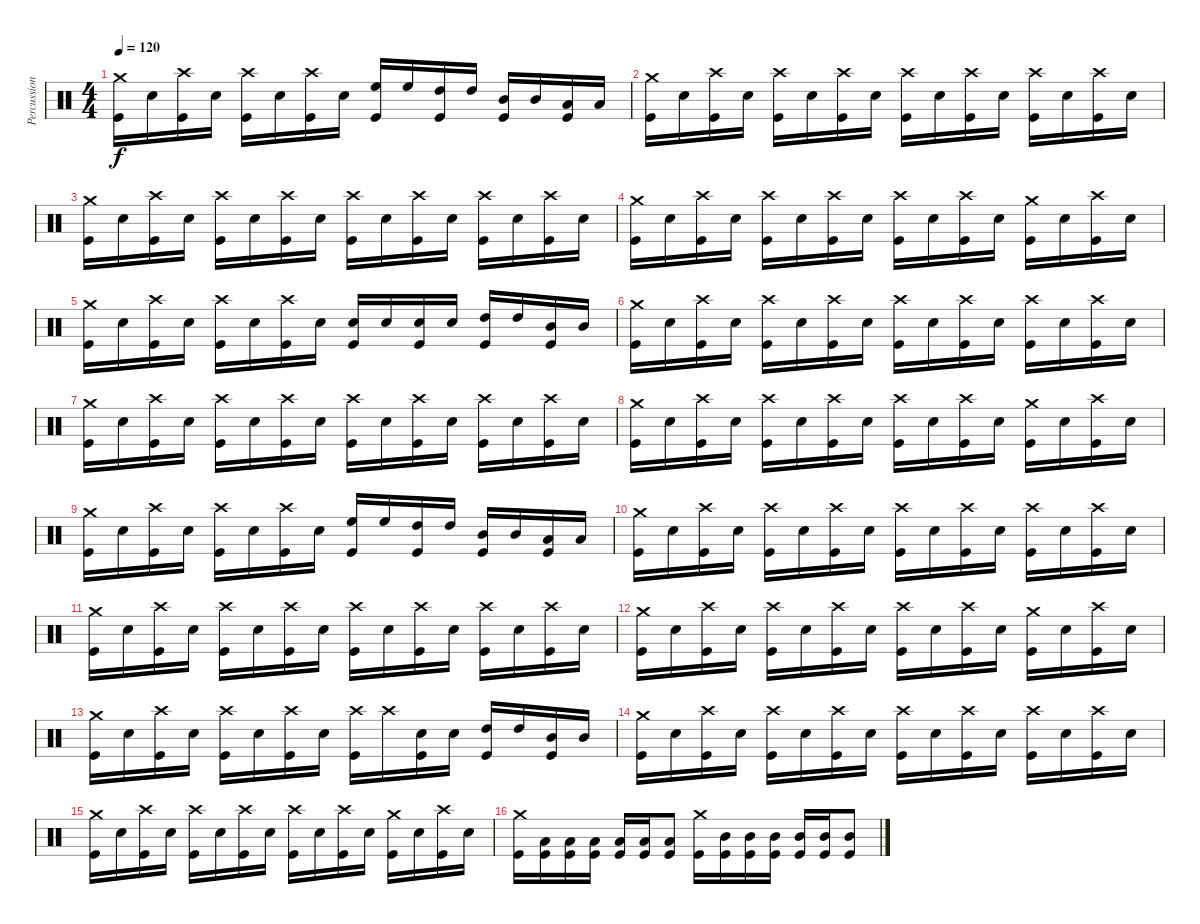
\track ("Percussioni" "Percussion") {instrument percussion}
\staff {score}
\articulation defaults
\ts (4 4)
\tempo 120
\clef neutral
\ks c
("Crash medium (hit)" "Kick (hit)").16{dy f} "Electric Snare (hit)".16 ("Crash high (hit)" "Kick (hit)").16 "Electric Snare (hit)".16 ("Crash high (hit)" "Kick (hit)").16 "Electric Snare (hit)".16 ("Crash high (hit)" "Kick (hit)").16 "Electric Snare (hit)".16 ("High Floor Tom (hit)" "Kick (hit)").16 "High Floor Tom (hit)".16 ("High Tom (hit)" "Kick (hit)").16 "High Tom (hit)".16 ("Mid Tom (hit)" "Kick (hit)").16 "Mid Tom (hit)".16 ("Low Tom (hit)" "Kick (hit)").16 "Low Tom (hit)".16 |
("Crash medium (hit)" "Kick (hit)").16 "Electric Snare (hit)".16 ("Crash high (hit)" "Kick (hit)").16 "Electric Snare (hit)".16 ("Crash high (hit)" "Kick (hit)").16 "Electric Snare (hit)".16 ("Crash high (hit)" "Kick (hit)").16 "Electric Snare (hit)".16 ("Crash high (hit)" "Kick (hit)").16 "Electric Snare (hit)".16 ("Crash high (hit)" "Kick (hit)").16 "Electric Snare (hit)".16 ("Crash high (hit)" "Kick (hit)").16 "Electric Snare (hit)".16 ("Crash high (hit)" "Kick (hit)").16 "Electric Snare (hit)".16 |
("Crash medium (hit)" "Kick (hit)").16 "Electric Snare (hit)".16 ("Crash high (hit)" "Kick (hit)").16 "Electric Snare (hit)".16 ("Crash high (hit)" "Kick (hit)").16 "Electric Snare (hit)".16 ("Crash high (hit)" "Kick (hit)").16 "Electric Snare (hit)".16 ("Crash high (hit)" "Kick (hit)").16 "Electric Snare (hit)".16 ("Crash high (hit)" "Kick (hit)").16 "Electric Snare (hit)".16 ("Crash high (hit)" "Kick (hit)").16 "Electric Snare (hit)".16 ("Crash high (hit)" "Kick (hit)").16 "Electric Snare (hit)".16 |
("Crash medium (hit)" "Kick (hit)").16 "Electric Snare (hit)".16 ("Crash high (hit)" "Kick (hit)").16 "Electric Snare (hit)".16 ("Crash high (hit)" "Kick (hit)").16 "Electric Snare (hit)".16 ("Crash high (hit)" "Kick (hit)").16 "Electric Snare (hit)".16 ("Crash high (hit)" "Kick (hit)").16 "Electric Snare (hit)".16 ("Crash high (hit)" "Kick (hit)").16 "Electric Snare (hit)".16 ("Crash medium (hit)" "Kick (hit)").16 "Electric Snare (hit)".16 ("Crash high (hit)" "Kick (hit)").16 "Electric Snare (hit)".16 |
("Crash medium (hit)" "Kick (hit)").16 "Electric Snare (hit)".16 ("Crash high (hit)" "Kick (hit)").16 "Electric Snare (hit)".16 ("Crash high (hit)" "Kick (hit)").16 "Electric Snare (hit)".16 ("Crash high (hit)" "Kick (hit)").16 "Electric Snare (hit)".16 ("Electric Snare (hit)" "Kick (hit)").16 "Electric Snare (hit)".16 ("Electric Snare (hit)" "Kick (hit)").16 "Electric Snare (hit)".16 ("High Tom (hit)" "Kick (hit)").16 "High Tom (hit)".16 ("Mid Tom (hit)" "Kick (hit)").16 "Mid Tom (hit)".16 |
("Crash medium (hit)" "Kick (hit)").16 "Electric Snare (hit)".16 ("Crash high (hit)" "Kick (hit)").16 "Electric Snare (hit)".16 ("Crash high (hit)" "Kick (hit)").16 "Electric Snare (hit)".16 ("Crash high (hit)" "Kick (hit)").16 "Electric Snare (hit)".16 ("Crash high (hit)" "Kick (hit)").16 "Electric Snare (hit)".16 ("Crash high (hit)" "Kick (hit)").16 "Electric Snare (hit)".16 ("Crash high (hit)" "Kick (hit)").16 "Electric Snare (hit)".16 ("Crash high (hit)" "Kick (hit)").16 "Electric Snare (hit)".16 |
("Crash medium (hit)" "Kick (hit)").16 "Electric Snare (hit)".16 ("Crash high (hit)" "Kick (hit)").16 "Electric Snare (hit)".16 ("Crash high (hit)" "Kick (hit)").16 "Electric Snare (hit)".16 ("Crash high (hit)" "Kick (hit)").16 "Electric Snare (hit)".16 ("Crash high (hit)" "Kick (hit)").16 "Electric Snare (hit)".16 ("Crash high (hit)" "Kick (hit)").16 "Electric Snare (hit)".16 ("Crash high (hit)" "Kick (hit)").16 "Electric Snare (hit)".16 ("Crash high (hit)" "Kick (hit)").16 "Electric Snare (hit)".16 |
("Crash medium (hit)" "Kick (hit)").16 "Electric Snare (hit)".16 ("Crash high (hit)" "Kick (hit)").16 "Electric Snare (hit)".16 ("Crash high (hit)" "Kick (hit)").16 "Electric Snare (hit)".16 ("Crash high (hit)" "Kick (hit)").16 "Electric Snare (hit)".16 ("Crash high (hit)" "Kick (hit)").16 "Electric Snare (hit)".16 ("Crash high (hit)" "Kick (hit)").16 "Electric Snare (hit)".16 ("Crash medium (hit)" "Kick (hit)").16 "Electric Snare (hit)".16 ("Crash high (hit)" "Kick (hit)").16 "Electric Snare (hit)".16 |
("Crash medium (hit)" "Kick (hit)").16 "Electric Snare (hit)".16 ("Crash high (hit)" "Kick (hit)").16 "Electric Snare (hit)".16 ("Crash high (hit)" "Kick (hit)").16 "Electric Snare (hit)".16 ("Crash high (hit)" "Kick (hit)").16 "Electric Snare (hit)".16 ("High Floor Tom (hit)" "Kick (hit)").16 "High Floor Tom (hit)".16 ("High Tom (hit)" "Kick (hit)").16 "High Tom (hit)".16 ("Mid Tom (hit)" "Kick (hit)").16 "Mid Tom (hit)".16 ("Low Tom (hit)" "Kick (hit)").16 "Low Tom (hit)".16 |
("Crash medium (hit)" "Kick (hit)").16 "Electric Snare (hit)".16 ("Crash high (hit)" "Kick (hit)").16 "Electric Snare (hit)".16 ("Crash high (hit)" "Kick (hit)").16 "Electric Snare (hit)".16 ("Crash high (hit)" "Kick (hit)").16 "Electric Snare (hit)".16 ("Crash high (hit)" "Kick (hit)").16 "Electric Snare (hit)".16 ("Crash high (hit)" "Kick (hit)").16 "Electric Snare (hit)".16 ("Crash high (hit)" "Kick (hit)").16 "Electric Snare (hit)".16 ("Crash high (hit)" "Kick (hit)").16 "Electric Snare (hit)".16 |
("Crash medium (hit)" "Kick (hit)").16 "Electric Snare (hit)".16 ("Crash high (hit)" "Kick (hit)").16 "Electric Snare (hit)".16 ("Crash high (hit)" "Kick (hit)").16 "Electric Snare (hit)".16 ("Crash high (hit)" "Kick (hit)").16 "Electric Snare (hit)".16 ("Crash high (hit)" "Kick (hit)").16 "Electric Snare (hit)".16 ("Crash high (hit)" "Kick (hit)").16 "Electric Snare (hit)".16 ("Crash high (hit)" "Kick (hit)").16 "Electric Snare (hit)".16 ("Crash high (hit)" "Kick (hit)").16 "Electric Snare (hit)".16 |
("Crash medium (hit)" "Kick (hit)").16 "Electric Snare (hit)".16 ("Crash high (hit)" "Kick (hit)").16 "Electric Snare (hit)".16 ("Crash high (hit)" "Kick (hit)").16 "Electric Snare (hit)".16 ("Crash high (hit)" "Kick (hit)").16 "Electric Snare (hit)".16 ("Crash high (hit)" "Kick (hit)").16 "Electric Snare (hit)".16 ("Crash high (hit)" "Kick (hit)").16 "Electric Snare (hit)".16 ("Crash medium (hit)" "Kick (hit)").16 "Electric Snare (hit)".16 ("Crash high (hit)" "Kick (hit)").16 "Electric Snare (hit)".16 |
("Crash medium (hit)" "Kick (hit)").16 "Electric Snare (hit)".16 ("Crash high (hit)" "Kick (hit)").16 "Electric Snare (hit)".16 ("Crash high (hit)" "Kick (hit)").16 "Electric Snare (hit)".16 ("Crash high (hit)" "Kick (hit)").16 "Electric Snare (hit)".16 ("Crash high (hit)" "Kick (hit)").16 "Crash high (hit)".16 ("Electric Snare (hit)" "Kick (hit)").16 "Electric Snare (hit)".16 ("High Tom (hit)" "Kick (hit)").16 "High Tom (hit)".16 ("Mid Tom (hit)" "Kick (hit)").16 "Mid Tom (hit)".16 |
("Crash medium (hit)" "Kick (hit)").16 "Electric Snare (hit)".16 ("Crash high (hit)" "Kick (hit)").16 "Electric Snare (hit)".16 ("Crash high (hit)" "Kick (hit)").16 "Electric Snare (hit)".16 ("Crash high (hit)" "Kick (hit)").16 "Electric Snare (hit)".16 ("Crash high (hit)" "Kick (hit)").16 "Electric Snare (hit)".16 ("Crash high (hit)" "Kick (hit)").16 "Electric Snare (hit)".16 ("Crash high (hit)" "Kick (hit)").16 "Electric Snare (hit)".16 ("Crash high (hit)" "Kick (hit)").16 "Electric Snare (hit)".16 |
("Crash medium (hit)" "Kick (hit)").16 "Electric Snare (hit)".16 ("Crash high (hit)" "Kick (hit)").16 "Electric Snare (hit)".16 ("Crash high (hit)" "Kick (hit)").16 "Electric Snare (hit)".16 ("Crash high (hit)" "Kick (hit)").16 "Electric Snare (hit)".16 ("Crash high (hit)" "Kick (hit)").16 "Electric Snare (hit)".16 ("Crash high (hit)" "Kick (hit)").16 "Electric Snare (hit)".16 ("Crash medium (hit)" "Kick (hit)").16 "Electric Snare (hit)".16 ("Crash high (hit)" "Kick (hit)").16 "Electric Snare (hit)".16 |
("Crash medium (hit)" "Kick (hit)").16 ("Low Tom (hit)" "Kick (hit)").16 ("Low Tom (hit)" "Kick (hit)").16 ("Low Tom (hit)" "Kick (hit)").16 ("Low Tom (hit)" "Kick (hit)").16 ("Low Tom (hit)" "Kick (hit)").16 ("Low Tom (hit)" "Kick (hit)").8 ("Crash medium (hit)" "Kick (hit)").16 ("Mid Tom (hit)" "Kick (hit)").16 ("Mid Tom (hit)" "Kick (hit)").16 ("Mid Tom (hit)" "Kick (hit)").16 ("Mid Tom (hit)" "Kick (hit)").16 ("Mid Tom (hit)" "Kick (hit)").16 ("Mid Tom (hit)" "Kick (hit)").8
